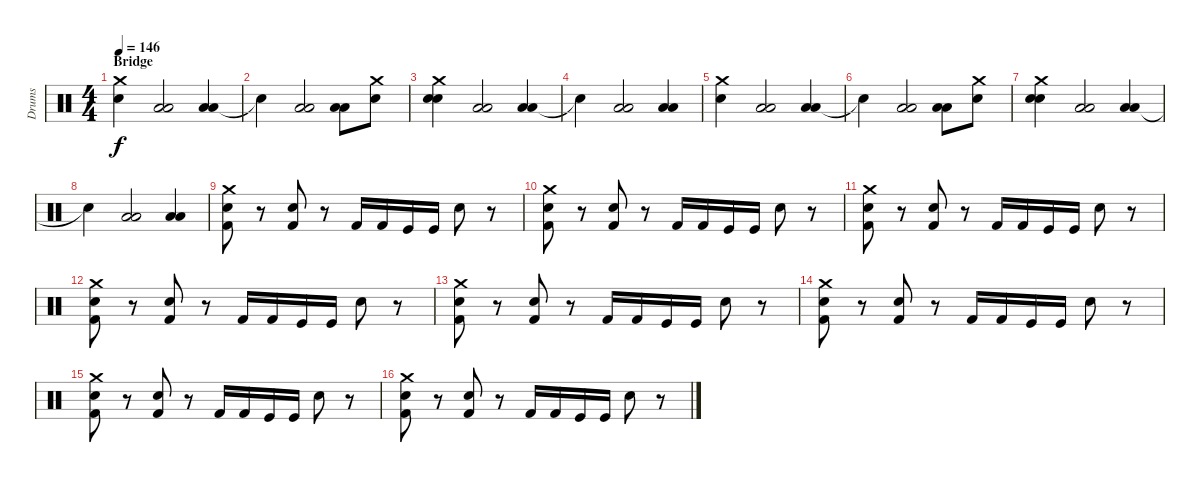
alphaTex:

\track ("Drums" "Drums") {instrument percussion}
\staff {score}
\articulation defaults
\ts (4 4)
\section ("" "Bridge")
\tempo 146
\clef neutral
\ks c
("Electric Snare (hit)" "Crash medium (hit)").4{dy f} ("Low Tom (hit)" "Low Floor Tom (hit)").2 ("Low Tom (hit)" "Low Floor Tom (hit)").4 |
"Snare (hit)"{t}.4 ("Low Tom (hit)" "Low Floor Tom (hit)").2 ("Low Tom (hit)" "Low Floor Tom (hit)").8 ("Electric Snare (hit)" "Crash medium (hit)").8 |
("Electric Snare (hit)" "Crash medium (hit)" "Snare (hit)").4 ("Low Tom (hit)" "Low Floor Tom (hit)").2 ("Low Tom (hit)" "Low Floor Tom (hit)").4 |
"Snare (hit)"{t}.4 ("Low Tom (hit)" "Low Floor Tom (hit)").2 ("Low Tom (hit)" "Low Floor Tom (hit)").4 |
("Electric Snare (hit)" "Crash medium (hit)").4 ("Low Tom (hit)" "Low Floor Tom (hit)").2 ("Low Tom (hit)" "Low Floor Tom (hit)").4 |
"Snare (hit)"{t}.4 ("Low Tom (hit)" "Low Floor Tom (hit)").2 ("Low Tom (hit)" "Low Floor Tom (hit)").8 ("Electric Snare (hit)" "Crash medium (hit)").8 |
("Electric Snare (hit)" "Crash medium (hit)" "Snare (hit)").4 ("Low Tom (hit)" "Low Floor Tom (hit)").2 ("Low Tom (hit)" "Low Floor Tom (hit)").4 |
"Snare (hit)"{t}.4 ("Low Tom (hit)" "Low Floor Tom (hit)").2 ("Low Tom (hit)" "Low Floor Tom (hit)").4 |
("Crash medium (hit)" "Snare (hit) 2" "Kick (hit) 2").8 r.8 ("Snare (hit) 2" "Kick (hit) 2").8 r.8 "Kick (hit) 2".16 "Kick (hit) 2".16 "Kick (hit)".16 "Kick (hit)".16 "Snare (hit) 2".8 r.8 |
("Crash medium (hit)" "Snare (hit) 2" "Kick (hit) 2").8 r.8 ("Snare (hit) 2" "Kick (hit) 2").8 r.8 "Kick (hit) 2".16 "Kick (hit) 2".16 "Kick (hit)".16 "Kick (hit)".16 "Snare (hit) 2".8 r.8 |
("Crash medium (hit)" "Snare (hit) 2" "Kick (hit) 2").8 r.8 ("Snare (hit) 2" "Kick (hit) 2").8 r.8 "Kick (hit) 2".16 "Kick (hit) 2".16 "Kick (hit)".16 "Kick (hit)".16 "Snare (hit) 2".8 r.8 |
("Crash medium (hit)" "Snare (hit) 2" "Kick (hit) 2").8 r.8 ("Snare (hit) 2" "Kick (hit) 2").8 r.8 "Kick (hit) 2".16 "Kick (hit) 2".16 "Kick (hit)".16 "Kick (hit)".16 "Snare (hit) 2".8 r.8 |
("Crash medium (hit)" "Snare (hit) 2" "Kick (hit) 2").8 r.8 ("Snare (hit) 2" "Kick (hit) 2").8 r.8 "Kick (hit) 2".16 "Kick (hit) 2".16 "Kick (hit)".16 "Kick (hit)".16 "Snare (hit) 2".8 r.8 |
("Crash medium (hit)" "Snare (hit) 2" "Kick (hit) 2").8 r.8 ("Snare (hit) 2" "Kick (hit) 2").8 r.8 "Kick (hit) 2".16 "Kick (hit) 2".16 "Kick (hit)".16 "Kick (hit)".16 "Snare (hit) 2".8 r.8 |
("Crash medium (hit)" "Snare (hit) 2" "Kick (hit) 2").8 r.8 ("Snare (hit) 2" "Kick (hit) 2").8 r.8 "Kick (hit) 2".16 "Kick (hit) 2".16 "Kick (hit)".16 "Kick (hit)".16 "Snare (hit) 2".8 r.8 |
("Crash medium (hit)" "Snare (hit) 2" "Kick (hit) 2").8 r.8 ("Snare (hit) 2" "Kick (hit) 2").8 r.8 "Kick (hit) 2".16 "Kick (hit) 2".16 "Kick (hit)".16 "Kick (hit)".16 "Snare (hit) 2".8 r.8
